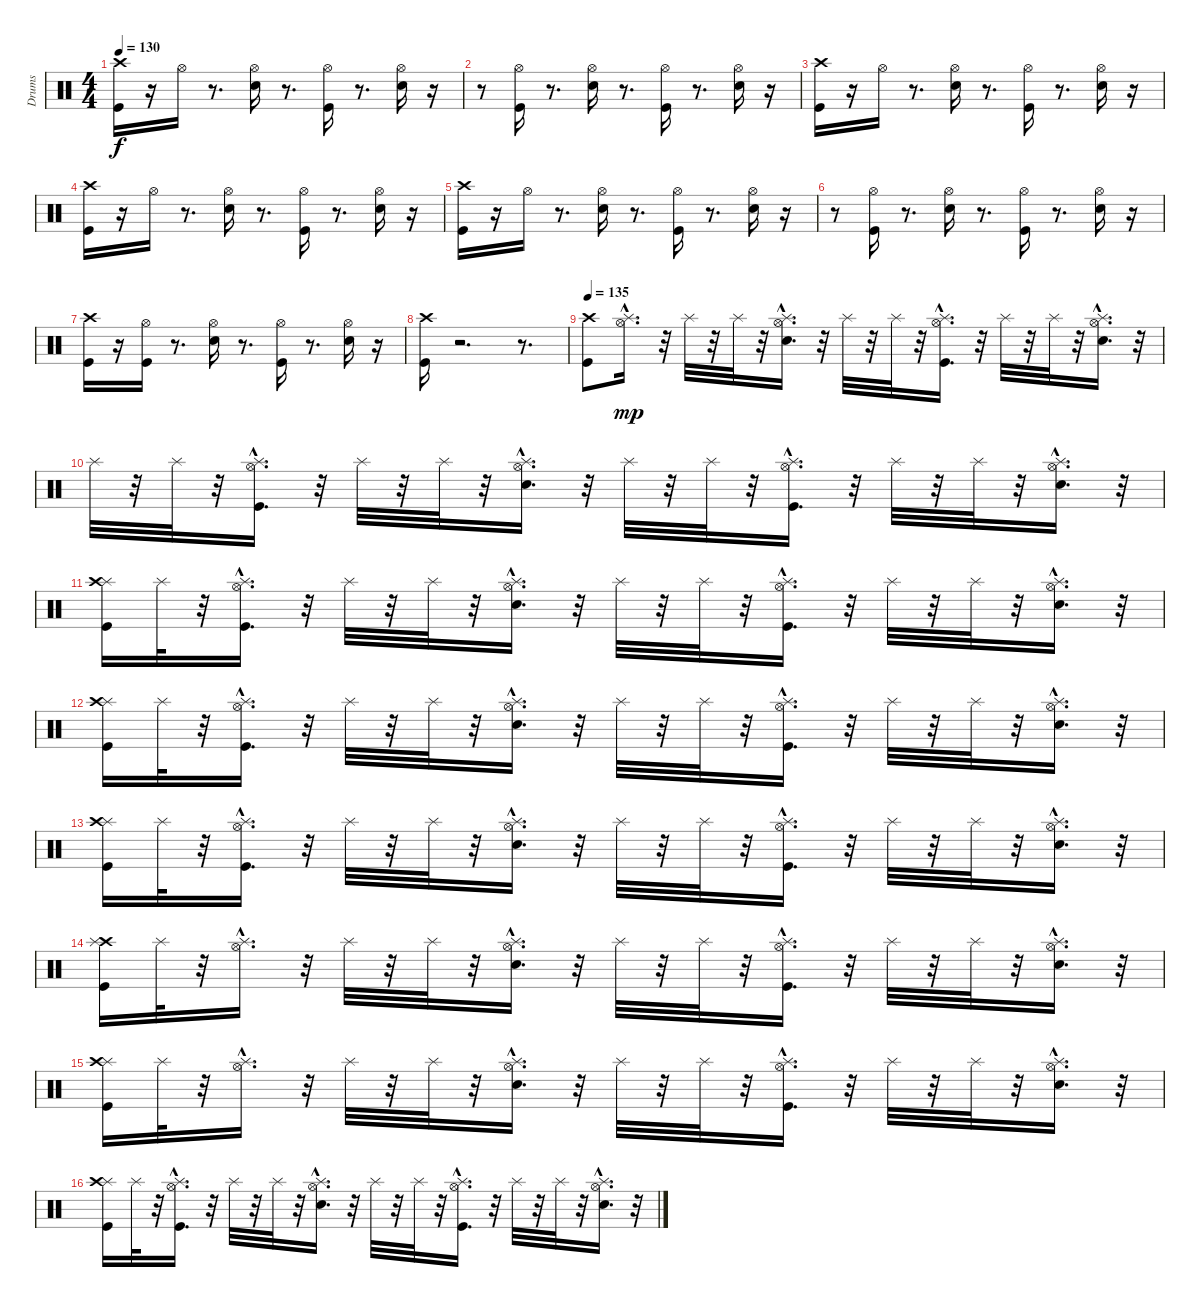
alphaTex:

\track ("Drums" "Drums") {instrument percussion}
\staff {score}
\articulation defaults
\ts (4 4)
\tempo 130
\clef neutral
\ks c
("Kick (hit)" "Crash high (hit)").16{dy f} r.16 "Hi-Hat (open)".16 r.8{d} ("Hi-Hat (open)" "Snare (hit) 2").16 r.8{d} ("Hi-Hat (open)" "Kick (hit)").16 r.8{d} ("Hi-Hat (open)" "Snare (hit) 2").16 r.16 |
r.8 ("Hi-Hat (open)" "Kick (hit)").16 r.8{d} ("Hi-Hat (open)" "Snare (hit) 2").16 r.8{d} ("Hi-Hat (open)" "Kick (hit)").16 r.8{d} ("Hi-Hat (open)" "Snare (hit) 2").16 r.16 |
("Kick (hit)" "Crash high (hit)").16 r.16 "Hi-Hat (open)".16 r.8{d} ("Hi-Hat (open)" "Snare (hit) 2").16 r.8{d} ("Hi-Hat (open)" "Kick (hit)").16 r.8{d} ("Hi-Hat (open)" "Snare (hit) 2").16 r.16 |
("Kick (hit)" "Crash high (hit)").16 r.16 "Hi-Hat (open)".16 r.8{d} ("Hi-Hat (open)" "Snare (hit) 2").16 r.8{d} ("Hi-Hat (open)" "Kick (hit)").16 r.8{d} ("Hi-Hat (open)" "Snare (hit) 2").16 r.16 |
("Crash high (hit)" "Kick (hit)").16 r.16 "Hi-Hat (open)".16 r.8{d} ("Hi-Hat (open)" "Snare (hit) 2").16 r.8{d} ("Hi-Hat (open)" "Kick (hit)").16 r.8{d} ("Hi-Hat (open)" "Snare (hit) 2").16 r.16 |
r.8 ("Kick (hit)" "Hi-Hat (open)").16 r.8{d} ("Hi-Hat (open)" "Snare (hit) 2").16 r.8{d} ("Hi-Hat (open)" "Kick (hit)").16 r.8{d} ("Hi-Hat (open)" "Snare (hit) 2").16 r.16 |
("Kick (hit)" "Crash high (hit)").16 r.16 ("Hi-Hat (open)" "Kick (hit)").16 r.8{d} ("Hi-Hat (open)" "Snare (hit) 2").16 r.8{d} ("Hi-Hat (open)" "Kick (hit)").16 r.8{d} ("Hi-Hat (open)" "Snare (hit) 2").16 r.16 |
("Kick (hit)" "Crash high (hit)").16 r.2{d} r.8{d} |
\tempo 135
("Kick (hit)" "Crash high (hit)").8 ("Splash (hit)"{hac} "Hi-Hat (open)").16{d dy mp} r.32 "Splash (hit)".32 r.32 "Splash (hit)".32 r.32 ("Snare (hit) 2" "Hi-Hat (open)" "Splash (hit)"{hac}).16{d} r.32 "Splash (hit)".32 r.32 "Splash (hit)".32 r.32 ("Hi-Hat (open)" "Kick (hit)" "Splash (hit)"{hac}).16{d} r.32 "Splash (hit)".32 r.32 "Splash (hit)".32 r.32 ("Hi-Hat (open)" "Snare (hit) 2" "Splash (hit)"{hac}).16{d} r.32 |
"Splash (hit)".32 r.32 "Splash (hit)".32 r.32 ("Hi-Hat (open)" "Kick (hit)" "Splash (hit)"{hac}).16{d} r.32 "Splash (hit)".32 r.32 "Splash (hit)".32 r.32 ("Hi-Hat (open)" "Snare (hit) 2" "Splash (hit)"{hac}).16{d} r.32 "Splash (hit)".32 r.32 "Splash (hit)".32 r.32 ("Hi-Hat (open)" "Kick (hit)" "Splash (hit)"{hac}).16{d} r.32 "Splash (hit)".32 r.32 "Splash (hit)".32 r.32 ("Hi-Hat (open)" "Snare (hit) 2" "Splash (hit)"{hac}).16{d} r.32 |
("Splash (hit)" "Crash high (hit)" "Kick (hit)").16 "Splash (hit)".32 r.32 ("Splash (hit)"{hac} "Hi-Hat (open)" "Kick (hit)").16{d} r.32 "Splash (hit)".32 r.32 "Splash (hit)".32 r.32 ("Snare (hit) 2" "Hi-Hat (open)" "Splash (hit)"{hac}).16{d} r.32 "Splash (hit)".32 r.32 "Splash (hit)".32 r.32 ("Hi-Hat (open)" "Kick (hit)" "Splash (hit)"{hac}).16{d} r.32 "Splash (hit)".32 r.32 "Splash (hit)".32 r.32 ("Hi-Hat (open)" "Snare (hit) 2" "Splash (hit)"{hac}).16{d} r.32 |
("Splash (hit)" "Kick (hit)" "Crash high (hit)").16 "Splash (hit)".32 r.32 ("Hi-Hat (open)" "Kick (hit)" "Splash (hit)"{hac}).16{d} r.32 "Splash (hit)".32 r.32 "Splash (hit)".32 r.32 ("Snare (hit) 2" "Hi-Hat (open)" "Splash (hit)"{hac}).16{d} r.32 "Splash (hit)".32 r.32 "Splash (hit)".32 r.32 ("Hi-Hat (open)" "Kick (hit)" "Splash (hit)"{hac}).16{d} r.32 "Splash (hit)".32 r.32 "Splash (hit)".32 r.32 ("Hi-Hat (open)" "Snare (hit) 2" "Splash (hit)"{hac}).16{d} r.32 |
("Splash (hit)" "Kick (hit)" "Crash high (hit)").16 "Splash (hit)".32 r.32 ("Splash (hit)"{hac} "Hi-Hat (open)" "Kick (hit)").16{d} r.32 "Splash (hit)".32 r.32 "Splash (hit)".32 r.32 ("Snare (hit) 2" "Hi-Hat (open)" "Splash (hit)"{hac}).16{d} r.32 "Splash (hit)".32 r.32 "Splash (hit)".32 r.32 ("Hi-Hat (open)" "Kick (hit)" "Splash (hit)"{hac}).16{d} r.32 "Splash (hit)".32 r.32 "Splash (hit)".32 r.32 ("Hi-Hat (open)" "Snare (hit) 2" "Splash (hit)"{hac}).16{d} r.32 |
("Crash high (hit)" "Kick (hit)" "Splash (hit)").16 "Splash (hit)".32 r.32 ("Hi-Hat (open)" "Splash (hit)"{hac}).16{d} r.32 "Splash (hit)".32 r.32 "Splash (hit)".32 r.32 ("Hi-Hat (open)" "Snare (hit) 2" "Splash (hit)"{hac}).16{d} r.32 "Splash (hit)".32 r.32 "Splash (hit)".32 r.32 ("Hi-Hat (open)" "Kick (hit)" "Splash (hit)"{hac}).16{d} r.32 "Splash (hit)".32 r.32 "Splash (hit)".32 r.32 ("Hi-Hat (open)" "Snare (hit) 2" "Splash (hit)"{hac}).16{d} r.32 |
("Splash (hit)" "Crash high (hit)" "Kick (hit)").16 "Splash (hit)".32 r.32 ("Hi-Hat (open)" "Splash (hit)"{hac}).16{d} r.32 "Splash (hit)".32 r.32 "Splash (hit)".32 r.32 ("Hi-Hat (open)" "Snare (hit) 2" "Splash (hit)"{hac}).16{d} r.32 "Splash (hit)".32 r.32 "Splash (hit)".32 r.32 ("Hi-Hat (open)" "Kick (hit)" "Splash (hit)"{hac}).16{d} r.32 "Splash (hit)".32 r.32 "Splash (hit)".32 r.32 ("Hi-Hat (open)" "Snare (hit) 2" "Splash (hit)"{hac}).16{d} r.32 |
("Splash (hit)" "Crash high (hit)" "Kick (hit)").16 "Splash (hit)".32 r.32 ("Hi-Hat (open)" "Splash (hit)"{hac} "Kick (hit)").16{d} r.32 "Splash (hit)".32 r.32 "Splash (hit)".32 r.32 ("Hi-Hat (open)" "Snare (hit) 2" "Splash (hit)"{hac}).16{d} r.32 "Splash (hit)".32 r.32 "Splash (hit)".32 r.32 ("Hi-Hat (open)" "Kick (hit)" "Splash (hit)"{hac}).16{d} r.32 "Splash (hit)".32 r.32 "Splash (hit)".32 r.32 ("Hi-Hat (open)" "Snare (hit) 2" "Splash (hit)"{hac}).16{d} r.32
